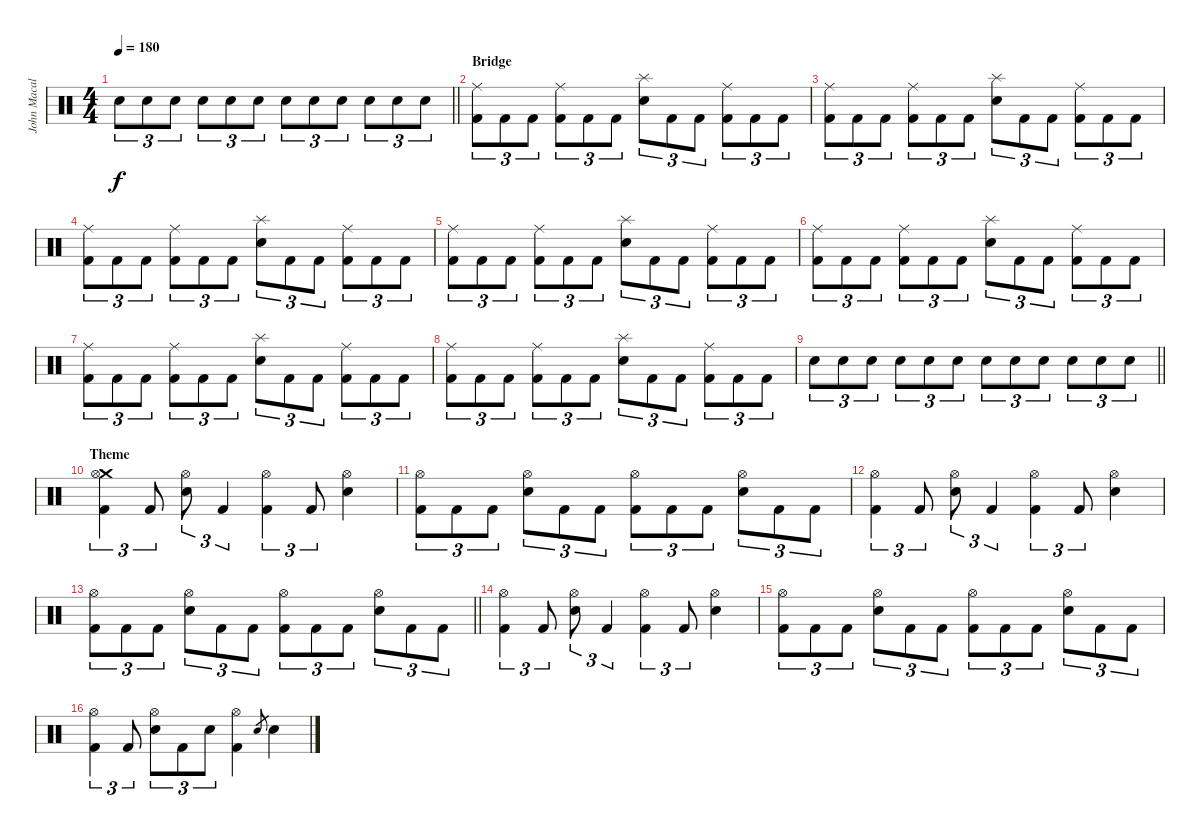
\track ("John Macaluso" "John Macal") {instrument percussion}
\staff {score}
\articulation defaults
\ts (4 4)
\tempo 180
\clef neutral
\barLineRight lightlight
\ks c "Snare (hit) 2".8{tu (3 2) dy f} "Snare (hit) 2".8{tu (3 2)} "Snare (hit) 2".8{tu (3 2)} "Snare (hit) 2".8{tu (3 2)} "Snare (hit) 2".8{tu (3 2)} "Snare (hit) 2".8{tu (3 2)} "Snare (hit) 2".8{tu (3 2)} "Snare (hit) 2".8{tu (3 2)} "Snare (hit) 2".8{tu (3 2)} "Snare (hit) 2".8{tu (3 2)} "Snare (hit) 2".8{tu (3 2)} "Snare (hit) 2".8{tu (3 2)}
|
\section ("" "Bridge")
("Ride (middle)" "Kick (hit) 2").8{tu (3 2)} "Kick (hit) 2".8{tu (3 2)} "Kick (hit) 2".8{tu (3 2)} ("Ride (middle)" "Kick (hit) 2").8{tu (3 2)} "Kick (hit) 2".8{tu (3 2)} "Kick (hit) 2".8{tu (3 2)} ("Splash (hit)" "Snare (hit) 2").8{tu (3 2)} "Kick (hit) 2".8{tu (3 2)} "Kick (hit) 2".8{tu (3 2)} ("Ride (middle)" "Kick (hit) 2").8{tu (3 2)} "Kick (hit) 2".8{tu (3 2)} "Kick (hit) 2".8{tu (3 2)} |
("Ride (middle)" "Kick (hit) 2").8{tu (3 2)} "Kick (hit) 2".8{tu (3 2)} "Kick (hit) 2".8{tu (3 2)} ("Ride (middle)" "Kick (hit) 2").8{tu (3 2)} "Kick (hit) 2".8{tu (3 2)} "Kick (hit) 2".8{tu (3 2)} ("Splash (hit)" "Snare (hit) 2").8{tu (3 2)} "Kick (hit) 2".8{tu (3 2)} "Kick (hit) 2".8{tu (3 2)} ("Ride (middle)" "Kick (hit) 2").8{tu (3 2)} "Kick (hit) 2".8{tu (3 2)} "Kick (hit) 2".8{tu (3 2)} |
("Ride (middle)" "Kick (hit) 2").8{tu (3 2)} "Kick (hit) 2".8{tu (3 2)} "Kick (hit) 2".8{tu (3 2)} ("Ride (middle)" "Kick (hit) 2").8{tu (3 2)} "Kick (hit) 2".8{tu (3 2)} "Kick (hit) 2".8{tu (3 2)} ("Splash (hit)" "Snare (hit) 2").8{tu (3 2)} "Kick (hit) 2".8{tu (3 2)} "Kick (hit) 2".8{tu (3 2)} ("Ride (middle)" "Kick (hit) 2").8{tu (3 2)} "Kick (hit) 2".8{tu (3 2)} "Kick (hit) 2".8{tu (3 2)} |
("Ride (middle)" "Kick (hit) 2").8{tu (3 2)} "Kick (hit) 2".8{tu (3 2)} "Kick (hit) 2".8{tu (3 2)} ("Ride (middle)" "Kick (hit) 2").8{tu (3 2)} "Kick (hit) 2".8{tu (3 2)} "Kick (hit) 2".8{tu (3 2)} ("Splash (hit)" "Snare (hit) 2").8{tu (3 2)} "Kick (hit) 2".8{tu (3 2)} "Kick (hit) 2".8{tu (3 2)} ("Ride (middle)" "Kick (hit) 2").8{tu (3 2)} "Kick (hit) 2".8{tu (3 2)} "Kick (hit) 2".8{tu (3 2)} |
("Ride (middle)" "Kick (hit) 2").8{tu (3 2)} "Kick (hit) 2".8{tu (3 2)} "Kick (hit) 2".8{tu (3 2)} ("Ride (middle)" "Kick (hit) 2").8{tu (3 2)} "Kick (hit) 2".8{tu (3 2)} "Kick (hit) 2".8{tu (3 2)} ("Splash (hit)" "Snare (hit) 2").8{tu (3 2)} "Kick (hit) 2".8{tu (3 2)} "Kick (hit) 2".8{tu (3 2)} ("Ride (middle)" "Kick (hit) 2").8{tu (3 2)} "Kick (hit) 2".8{tu (3 2)} "Kick (hit) 2".8{tu (3 2)} |
("Ride (middle)" "Kick (hit) 2").8{tu (3 2)} "Kick (hit) 2".8{tu (3 2)} "Kick (hit) 2".8{tu (3 2)} ("Ride (middle)" "Kick (hit) 2").8{tu (3 2)} "Kick (hit) 2".8{tu (3 2)} "Kick (hit) 2".8{tu (3 2)} ("Splash (hit)" "Snare (hit) 2").8{tu (3 2)} "Kick (hit) 2".8{tu (3 2)} "Kick (hit) 2".8{tu (3 2)} ("Ride (middle)" "Kick (hit) 2").8{tu (3 2)} "Kick (hit) 2".8{tu (3 2)} "Kick (hit) 2".8{tu (3 2)} |
("Ride (middle)" "Kick (hit) 2").8{tu (3 2)} "Kick (hit) 2".8{tu (3 2)} "Kick (hit) 2".8{tu (3 2)} ("Ride (middle)" "Kick (hit) 2").8{tu (3 2)} "Kick (hit) 2".8{tu (3 2)} "Kick (hit) 2".8{tu (3 2)} ("Splash (hit)" "Snare (hit) 2").8{tu (3 2)} "Kick (hit) 2".8{tu (3 2)} "Kick (hit) 2".8{tu (3 2)} ("Ride (middle)" "Kick (hit) 2").8{tu (3 2)} "Kick (hit) 2".8{tu (3 2)} "Kick (hit) 2".8{tu (3 2)} |
\barLineRight lightlight "Snare (hit) 2".8{tu (3 2)} "Snare (hit) 2".8{tu (3 2)} "Snare (hit) 2".8{tu (3 2)} "Snare (hit) 2".8{tu (3 2)} "Snare (hit) 2".8{tu (3 2)} "Snare (hit) 2".8{tu (3 2)} "Snare (hit) 2".8{tu (3 2)} "Snare (hit) 2".8{tu (3 2)} "Snare (hit) 2".8{tu (3 2)} "Snare (hit) 2".8{tu (3 2)} "Snare (hit) 2".8{tu (3 2)} "Snare (hit) 2".8{tu (3 2)}
|
\section ("" "Theme")
("Crash medium (hit)" "Hi-Hat (open)" "Kick (hit) 2").4{tu (3 2)} "Kick (hit) 2".8{tu (3 2)} ("Hi-Hat (open)" "Snare (hit) 2").8{tu (3 2)} "Kick (hit) 2".4{tu (3 2)} ("Hi-Hat (open)" "Kick (hit) 2").4{tu (3 2)} "Kick (hit) 2".8{tu (3 2)} ("Hi-Hat (open)" "Snare (hit) 2").4 |
("Hi-Hat (open)" "Kick (hit) 2").8{tu (3 2)} "Kick (hit) 2".8{tu (3 2)} "Kick (hit) 2".8{tu (3 2)} ("Hi-Hat (open)" "Snare (hit) 2").8{tu (3 2)} "Kick (hit) 2".8{tu (3 2)} "Kick (hit) 2".8{tu (3 2)} ("Hi-Hat (open)" "Kick (hit) 2").8{tu (3 2)} "Kick (hit) 2".8{tu (3 2)} "Kick (hit) 2".8{tu (3 2)} ("Hi-Hat (open)" "Snare (hit) 2").8{tu (3 2)} "Kick (hit) 2".8{tu (3 2)} "Kick (hit) 2".8{tu (3 2)} |
("Hi-Hat (open)" "Kick (hit) 2").4{tu (3 2)} "Kick (hit) 2".8{tu (3 2)} ("Hi-Hat (open)" "Snare (hit) 2").8{tu (3 2)} "Kick (hit) 2".4{tu (3 2)} ("Hi-Hat (open)" "Kick (hit) 2").4{tu (3 2)} "Kick (hit) 2".8{tu (3 2)} ("Hi-Hat (open)" "Snare (hit) 2").4 |
\barLineRight lightlight
("Hi-Hat (open)" "Kick (hit) 2").8{tu (3 2)} "Kick (hit) 2".8{tu (3 2)} "Kick (hit) 2".8{tu (3 2)} ("Hi-Hat (open)" "Snare (hit) 2").8{tu (3 2)} "Kick (hit) 2".8{tu (3 2)} "Kick (hit) 2".8{tu (3 2)} ("Hi-Hat (open)" "Kick (hit) 2").8{tu (3 2)} "Kick (hit) 2".8{tu (3 2)} "Kick (hit) 2".8{tu (3 2)} ("Hi-Hat (open)" "Snare (hit) 2").8{tu (3 2)} "Kick (hit) 2".8{tu (3 2)} "Kick (hit) 2".8{tu (3 2)} |
("Hi-Hat (open)" "Kick (hit) 2").4{tu (3 2)} "Kick (hit) 2".8{tu (3 2)} ("Hi-Hat (open)" "Snare (hit) 2").8{tu (3 2)} "Kick (hit) 2".4{tu (3 2)} ("Hi-Hat (open)" "Kick (hit) 2").4{tu (3 2)} "Kick (hit) 2".8{tu (3 2)} ("Hi-Hat (open)" "Snare (hit) 2").4 |
("Hi-Hat (open)" "Kick (hit) 2").8{tu (3 2)} "Kick (hit) 2".8{tu (3 2)} "Kick (hit) 2".8{tu (3 2)} ("Hi-Hat (open)" "Snare (hit) 2").8{tu (3 2)} "Kick (hit) 2".8{tu (3 2)} "Kick (hit) 2".8{tu (3 2)} ("Hi-Hat (open)" "Kick (hit) 2").8{tu (3 2)} "Kick (hit) 2".8{tu (3 2)} "Kick (hit) 2".8{tu (3 2)} ("Hi-Hat (open)" "Snare (hit) 2").8{tu (3 2)} "Kick (hit) 2".8{tu (3 2)} "Kick (hit) 2".8{tu (3 2)} |
("Hi-Hat (open)" "Kick (hit) 2").4{tu (3 2)} "Kick (hit) 2".8{tu (3 2)} ("Hi-Hat (open)" "Snare (hit) 2").8{tu (3 2)} "Kick (hit) 2".8{tu (3 2)} "Snare (hit) 2".8{tu (3 2)} ("Hi-Hat (open)" "Kick (hit) 2").4 "Snare (hit) 2".8{gr} "Snare (hit) 2".4
